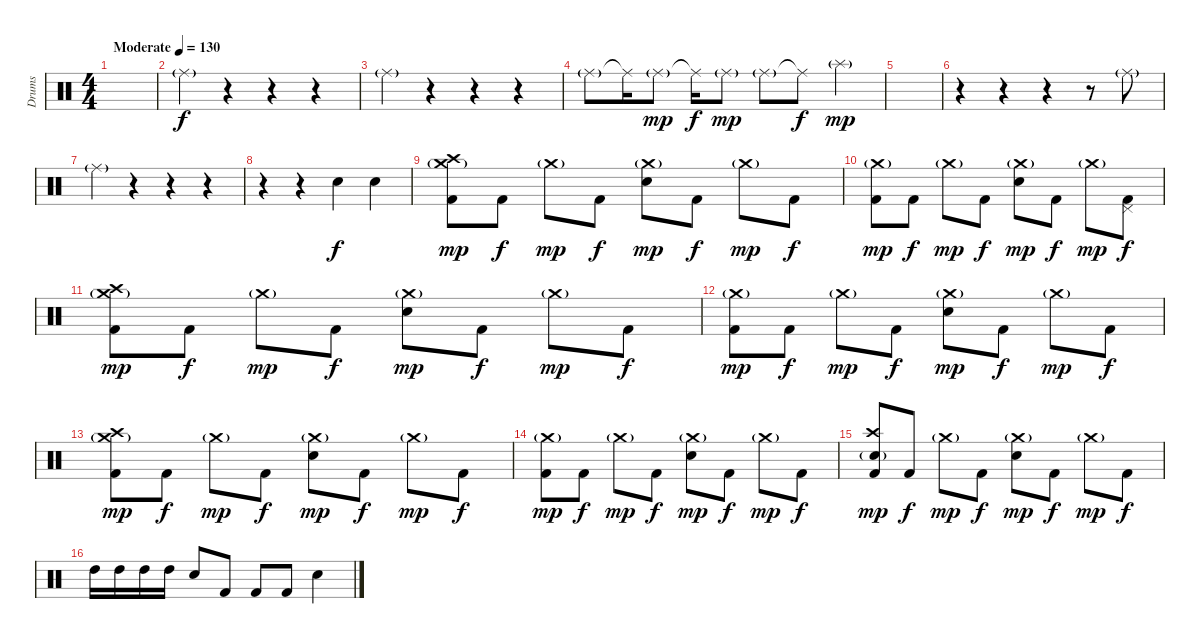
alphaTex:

\track ("Drums" "Drums") {instrument percussion}
\staff {score}
\articulation defaults
\ts (4 4)
\tempo (130 "Moderate")
\clef neutral
\ks c
|
"Ride (middle)"{g}.4 r.4 r.4 r.4 |
"Ride (middle)"{g}.4 r.4 r.4 r.4 |
"Ride (middle)"{g}.8 "Ride (middle)"{t}.16{dy f} "Ride (middle)"{g}.8{dy mp} "Ride (middle)"{t}.16{dy f} "Ride (middle)"{g}.8{dy mp} "Ride (middle)"{g}.8 "Ride (middle)"{t}.8{dy f} "Splash (hit)"{g}.4{dy mp} |
|
r.4 r.4 r.4 r.8 "Ride (middle)"{g}.8 |
"Ride (middle)"{g}.4 r.4 r.4 r.4 |
r.4{volume 13} r.4 "Electric Snare (hit)".4{dy f} "Electric Snare (hit)".4 |
("Crash high (hit)" "Crash medium (hit)"{g} "Kick (hit) 2").8{dy mp} "Kick (hit) 2".8{dy f} "Crash medium (hit)"{g}.8{dy mp} "Kick (hit) 2".8{dy f} ("Crash medium (hit)"{g} "Electric Snare (hit)").8{dy mp} "Kick (hit) 2".8{dy f} "Crash medium (hit)"{g}.8{dy mp} "Kick (hit) 2".8{dy f} |
("Crash medium (hit)"{g} "Kick (hit) 2").8{dy mp} "Kick (hit) 2".8{dy f} "Crash medium (hit)"{g}.8{dy mp} "Kick (hit) 2".8{dy f} ("Crash medium (hit)"{g} "Electric Snare (hit)").8{dy mp} "Kick (hit) 2".8{dy f} "Crash medium (hit)"{g}.8{dy mp} ("Pedal Hi-Hat (hit)" "Kick (hit) 2").8{dy f} |
("Crash high (hit)" "Crash medium (hit)"{g} "Kick (hit) 2").8{dy mp} "Kick (hit) 2".8{dy f} "Crash medium (hit)"{g}.8{dy mp} "Kick (hit) 2".8{dy f} ("Crash medium (hit)"{g} "Electric Snare (hit)").8{dy mp} "Kick (hit) 2".8{dy f} "Crash medium (hit)"{g}.8{dy mp} "Kick (hit) 2".8{dy f} |
("Crash medium (hit)"{g} "Kick (hit) 2").8{dy mp} "Kick (hit) 2".8{dy f} "Crash medium (hit)"{g}.8{dy mp} "Kick (hit) 2".8{dy f} ("Crash medium (hit)"{g} "Electric Snare (hit)").8{dy mp} "Kick (hit) 2".8{dy f} "Crash medium (hit)"{g}.8{dy mp} "Kick (hit) 2".8{dy f} |
("Crash high (hit)" "Crash medium (hit)"{g} "Kick (hit) 2").8{dy mp} "Kick (hit) 2".8{dy f} "Crash medium (hit)"{g}.8{dy mp} "Kick (hit) 2".8{dy f} ("Crash medium (hit)"{g} "Electric Snare (hit)").8{dy mp} "Kick (hit) 2".8{dy f} "Crash medium (hit)"{g}.8{dy mp} "Kick (hit) 2".8{dy f} |
("Crash medium (hit)"{g} "Kick (hit) 2").8{dy mp} "Kick (hit) 2".8{dy f} "Crash medium (hit)"{g}.8{dy mp} "Kick (hit) 2".8{dy f} ("Crash medium (hit)"{g} "Electric Snare (hit)").8{dy mp} "Kick (hit) 2".8{dy f} "Crash medium (hit)"{g}.8{dy mp} "Kick (hit) 2".8{dy f} |
("Crash high (hit)" "Electric Snare (hit)"{g} "Kick (hit) 2").8{dy mp} "Kick (hit) 2".8{dy f} "Crash medium (hit)"{g}.8{dy mp} "Kick (hit) 2".8{dy f} ("Crash medium (hit)"{g} "Electric Snare (hit)").8{dy mp} "Kick (hit) 2".8{dy f} "Crash medium (hit)"{g}.8{dy mp} "Kick (hit) 2".8{dy f} |
"High Tom (hit)".16 "High Tom (hit)".16 "High Tom (hit)".16 "High Tom (hit)".16 "Electric Snare (hit)".8 "Kick (hit) 2".8 "Kick (hit) 2".8 "Kick (hit) 2".8 "Electric Snare (hit)".4
